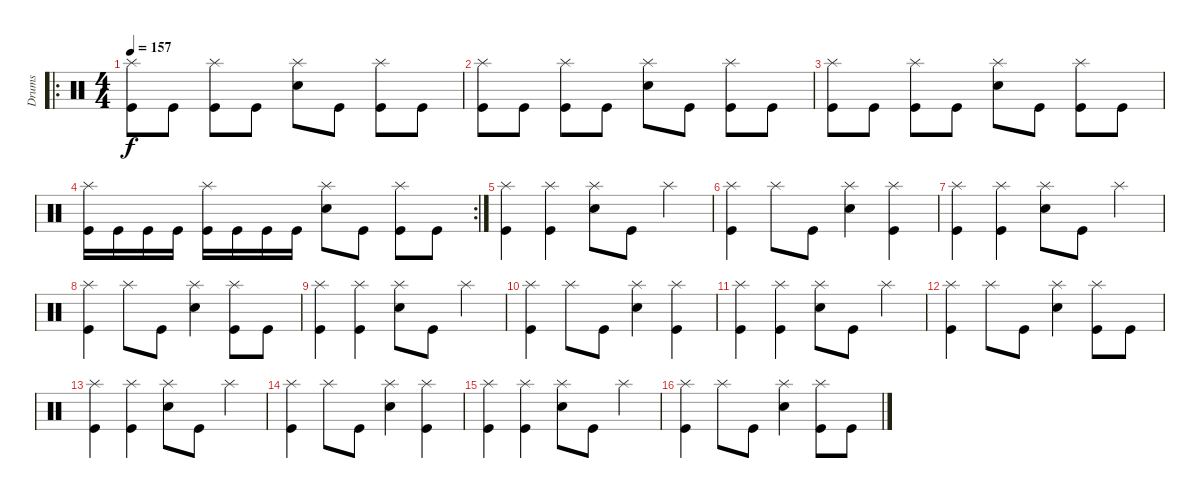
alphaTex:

\track ("Drums" "Drums") {instrument percussion}
\staff {score}
\articulation defaults
\ro
\ts (4 4)
\tempo 157
\clef neutral
\ks c
("Splash (hit)" "Kick (hit)").8{dy f} "Kick (hit)".8 ("Splash (hit)" "Kick (hit)").8 "Kick (hit)".8 ("Splash (hit)" "Electric Snare (hit)").8 "Kick (hit)".8 ("Splash (hit)" "Kick (hit)").8 "Kick (hit)".8 |
("Splash (hit)" "Kick (hit)").8 "Kick (hit)".8 ("Splash (hit)" "Kick (hit)").8 "Kick (hit)".8 ("Splash (hit)" "Electric Snare (hit)").8 "Kick (hit)".8 ("Splash (hit)" "Kick (hit)").8 "Kick (hit)".8 |
("Splash (hit)" "Kick (hit)").8 "Kick (hit)".8 ("Splash (hit)" "Kick (hit)").8 "Kick (hit)".8 ("Splash (hit)" "Electric Snare (hit)").8 "Kick (hit)".8 ("Splash (hit)" "Kick (hit)").8 "Kick (hit)".8 |
\rc 2
("Splash (hit)" "Kick (hit)").16 "Kick (hit)".16 "Kick (hit)".16 "Kick (hit)".16 ("Splash (hit)" "Kick (hit)").16 "Kick (hit)".16 "Kick (hit)".16 "Kick (hit)".16 ("Splash (hit)" "Electric Snare (hit)").8 "Kick (hit)".8 ("Splash (hit)" "Kick (hit)").8 "Kick (hit)".8 |
("Splash (hit)" "Kick (hit)").4 ("Splash (hit)" "Kick (hit)").4 ("Splash (hit)" "Electric Snare (hit)").8 "Kick (hit)".8 "Splash (hit)".4 |
("Splash (hit)" "Kick (hit)").4 "Splash (hit)".8 "Kick (hit)".8 ("Splash (hit)" "Electric Snare (hit)").4 ("Splash (hit)" "Kick (hit)").4 |
("Splash (hit)" "Kick (hit)").4 ("Splash (hit)" "Kick (hit)").4 ("Splash (hit)" "Electric Snare (hit)").8 "Kick (hit)".8 "Splash (hit)".4 |
("Splash (hit)" "Kick (hit)").4 "Splash (hit)".8 "Kick (hit)".8 ("Splash (hit)" "Electric Snare (hit)").4 ("Splash (hit)" "Kick (hit)").8 "Kick (hit)".8 |
("Splash (hit)" "Kick (hit)").4 ("Splash (hit)" "Kick (hit)").4 ("Splash (hit)" "Electric Snare (hit)").8 "Kick (hit)".8 "Splash (hit)".4 |
("Splash (hit)" "Kick (hit)").4 "Splash (hit)".8 "Kick (hit)".8 ("Splash (hit)" "Electric Snare (hit)").4 ("Splash (hit)" "Kick (hit)").4 |
("Splash (hit)" "Kick (hit)").4 ("Splash (hit)" "Kick (hit)").4 ("Splash (hit)" "Electric Snare (hit)").8 "Kick (hit)".8 "Splash (hit)".4 |
("Splash (hit)" "Kick (hit)").4 "Splash (hit)".8 "Kick (hit)".8 ("Splash (hit)" "Electric Snare (hit)").4 ("Splash (hit)" "Kick (hit)").8 "Kick (hit)".8 |
("Splash (hit)" "Kick (hit)").4 ("Splash (hit)" "Kick (hit)").4 ("Splash (hit)" "Electric Snare (hit)").8 "Kick (hit)".8 "Splash (hit)".4 |
("Splash (hit)" "Kick (hit)").4 "Splash (hit)".8 "Kick (hit)".8 ("Splash (hit)" "Electric Snare (hit)").4 ("Splash (hit)" "Kick (hit)").4 |
("Splash (hit)" "Kick (hit)").4 ("Splash (hit)" "Kick (hit)").4 ("Splash (hit)" "Electric Snare (hit)").8 "Kick (hit)".8 "Splash (hit)".4 |
("Splash (hit)" "Kick (hit)").4 "Splash (hit)".8 "Kick (hit)".8 ("Splash (hit)" "Electric Snare (hit)").4 ("Splash (hit)" "Kick (hit)").8 "Kick (hit)".8
